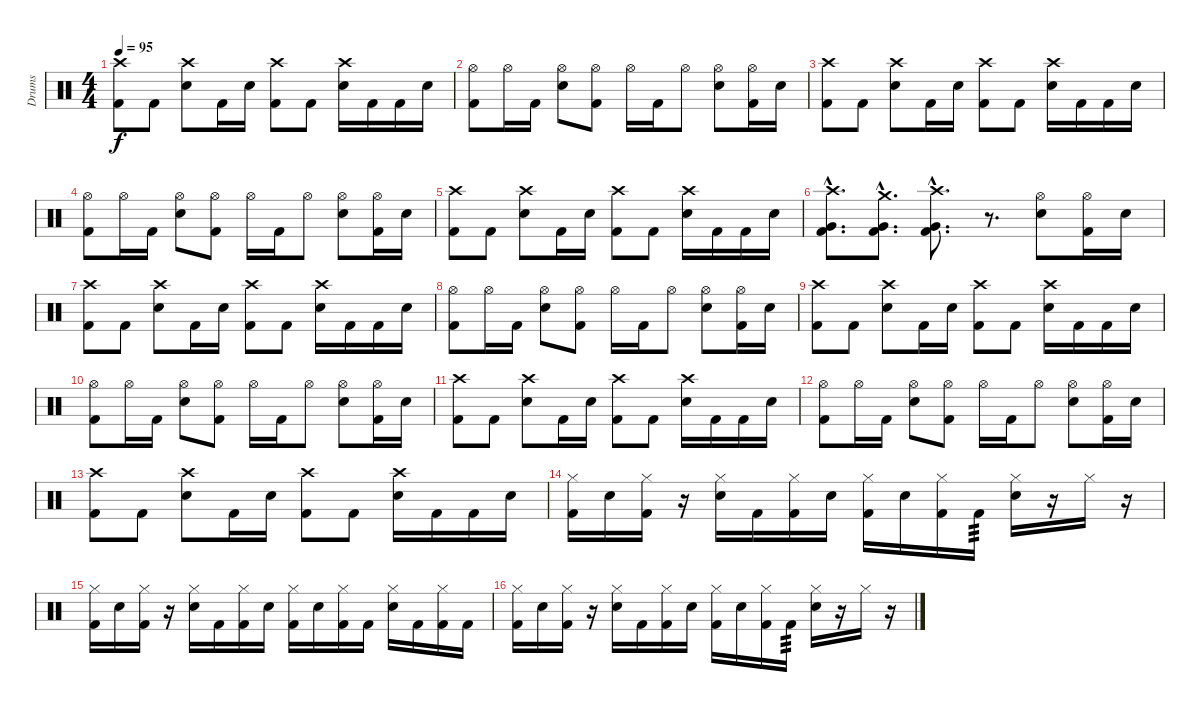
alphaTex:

\track ("Drums" "Drums") {instrument percussion}
\staff {score}
\articulation defaults
\ts (4 4)
\tempo 95
\clef neutral
\ks c
("Crash high (hit)" "Kick (hit) 2").8{dy f} "Kick (hit) 2".8 ("Crash high (hit)" "Snare (hit) 2").8 "Kick (hit) 2".16 "Snare (hit) 2".16 ("Crash high (hit)" "Kick (hit) 2").8 "Kick (hit) 2".8 ("Crash high (hit)" "Snare (hit) 2").16 "Kick (hit) 2".16 "Kick (hit) 2".16 "Snare (hit) 2".16 |
("Hi-Hat (open)" "Kick (hit) 2").8 "Hi-Hat (open)".16 "Kick (hit) 2".16 ("Hi-Hat (open)" "Snare (hit) 2").8 ("Hi-Hat (open)" "Kick (hit) 2").8 "Hi-Hat (open)".16 "Kick (hit) 2".16 "Hi-Hat (open)".8 ("Hi-Hat (open)" "Snare (hit) 2").8 ("Hi-Hat (open)" "Kick (hit) 2").16 "Snare (hit) 2".16 |
("Crash high (hit)" "Kick (hit) 2").8 "Kick (hit) 2".8 ("Crash high (hit)" "Snare (hit) 2").8 "Kick (hit) 2".16 "Snare (hit) 2".16 ("Crash high (hit)" "Kick (hit) 2").8 "Kick (hit) 2".8 ("Crash high (hit)" "Snare (hit) 2").16 "Kick (hit) 2".16 "Kick (hit) 2".16 "Snare (hit) 2".16 |
("Hi-Hat (open)" "Kick (hit) 2").8 "Hi-Hat (open)".16 "Kick (hit) 2".16 ("Hi-Hat (open)" "Snare (hit) 2").8 ("Hi-Hat (open)" "Kick (hit) 2").8 "Hi-Hat (open)".16 "Kick (hit) 2".16 "Hi-Hat (open)".8 ("Hi-Hat (open)" "Snare (hit) 2").8 ("Hi-Hat (open)" "Kick (hit) 2").16 "Snare (hit) 2".16 |
("Crash high (hit)" "Kick (hit) 2").8 "Kick (hit) 2".8 ("Crash high (hit)" "Snare (hit) 2").8 "Kick (hit) 2".16 "Snare (hit) 2".16 ("Crash high (hit)" "Kick (hit) 2").8 "Kick (hit) 2".8 ("Crash high (hit)" "Snare (hit) 2").16 "Kick (hit) 2".16 "Kick (hit) 2".16 "Snare (hit) 2".16 |
("Crash high (hit)"{hac} "Kick (hit) 2"{hac} "Very Low Tom (hit)"{hac}).8{d} ("Crash medium (hit)"{hac} "Kick (hit) 2"{hac} "Very Low Tom (hit)"{hac}).8{d} ("Crash high (hit)"{hac} "Kick (hit) 2"{hac} "Very Low Tom (hit)"{hac}).8{d} r.8{d} ("Hi-Hat (open)" "Snare (hit) 2").8 ("Hi-Hat (open)" "Kick (hit) 2").16 "Snare (hit) 2".16 |
("Crash high (hit)" "Kick (hit) 2").8 "Kick (hit) 2".8 ("Crash high (hit)" "Snare (hit) 2").8 "Kick (hit) 2".16 "Snare (hit) 2".16 ("Crash high (hit)" "Kick (hit) 2").8 "Kick (hit) 2".8 ("Crash high (hit)" "Snare (hit) 2").16 "Kick (hit) 2".16 "Kick (hit) 2".16 "Snare (hit) 2".16 |
("Hi-Hat (open)" "Kick (hit) 2").8 "Hi-Hat (open)".16 "Kick (hit) 2".16 ("Hi-Hat (open)" "Snare (hit) 2").8 ("Hi-Hat (open)" "Kick (hit) 2").8 "Hi-Hat (open)".16 "Kick (hit) 2".16 "Hi-Hat (open)".8 ("Hi-Hat (open)" "Snare (hit) 2").8 ("Hi-Hat (open)" "Kick (hit) 2").16 "Snare (hit) 2".16 |
("Crash high (hit)" "Kick (hit) 2").8 "Kick (hit) 2".8 ("Crash high (hit)" "Snare (hit) 2").8 "Kick (hit) 2".16 "Snare (hit) 2".16 ("Crash high (hit)" "Kick (hit) 2").8 "Kick (hit) 2".8 ("Crash high (hit)" "Snare (hit) 2").16 "Kick (hit) 2".16 "Kick (hit) 2".16 "Snare (hit) 2".16 |
("Hi-Hat (open)" "Kick (hit) 2").8 "Hi-Hat (open)".16 "Kick (hit) 2".16 ("Hi-Hat (open)" "Snare (hit) 2").8 ("Hi-Hat (open)" "Kick (hit) 2").8 "Hi-Hat (open)".16 "Kick (hit) 2".16 "Hi-Hat (open)".8 ("Hi-Hat (open)" "Snare (hit) 2").8 ("Hi-Hat (open)" "Kick (hit) 2").16 "Snare (hit) 2".16 |
("Crash high (hit)" "Kick (hit) 2").8 "Kick (hit) 2".8 ("Crash high (hit)" "Snare (hit) 2").8 "Kick (hit) 2".16 "Snare (hit) 2".16 ("Crash high (hit)" "Kick (hit) 2").8 "Kick (hit) 2".8 ("Crash high (hit)" "Snare (hit) 2").16 "Kick (hit) 2".16 "Kick (hit) 2".16 "Snare (hit) 2".16 |
("Hi-Hat (open)" "Kick (hit) 2").8 "Hi-Hat (open)".16 "Kick (hit) 2".16 ("Hi-Hat (open)" "Snare (hit) 2").8 ("Hi-Hat (open)" "Kick (hit) 2").8 "Hi-Hat (open)".16 "Kick (hit) 2".16 "Hi-Hat (open)".8 ("Hi-Hat (open)" "Snare (hit) 2").8 ("Hi-Hat (open)" "Kick (hit) 2").16 "Snare (hit) 2".16 |
("Crash high (hit)" "Kick (hit) 2").8 "Kick (hit) 2".8 ("Crash high (hit)" "Snare (hit) 2").8 "Kick (hit) 2".16 "Snare (hit) 2".16 ("Crash high (hit)" "Kick (hit) 2").8 "Kick (hit) 2".8 ("Crash high (hit)" "Snare (hit) 2").16 "Kick (hit) 2".16 "Kick (hit) 2".16 "Snare (hit) 2".16 |
("Hi-Hat (closed)" "Kick (hit) 2").16 "Snare (hit) 2".16 ("Hi-Hat (closed)" "Kick (hit) 2").16 r.16 ("Hi-Hat (closed)" "Snare (hit) 2").16 "Kick (hit) 2".16 ("Hi-Hat (closed)" "Kick (hit) 2").16 "Snare (hit) 2".16 ("Hi-Hat (closed)" "Kick (hit) 2").16 "Snare (hit) 2".16 ("Hi-Hat (closed)" "Kick (hit) 2").16 "Kick (hit) 2".16{tp 3} ("Hi-Hat (closed)" "Snare (hit) 2").16 r.16 "Hi-Hat (closed)".16 r.16 |
("Hi-Hat (closed)" "Kick (hit) 2").16 "Snare (hit) 2".16 ("Hi-Hat (closed)" "Kick (hit) 2").16 r.16 ("Hi-Hat (closed)" "Snare (hit) 2").16 "Kick (hit) 2".16 ("Hi-Hat (closed)" "Kick (hit) 2").16 "Snare (hit) 2".16 ("Hi-Hat (closed)" "Kick (hit) 2").16 "Snare (hit) 2".16 ("Hi-Hat (closed)" "Kick (hit) 2").16 "Kick (hit) 2".16 ("Hi-Hat (closed)" "Snare (hit) 2").16 "Kick (hit) 2".16 ("Hi-Hat (closed)" "Kick (hit) 2").16 "Kick (hit) 2".16 |
("Hi-Hat (closed)" "Kick (hit) 2").16 "Snare (hit) 2".16 ("Hi-Hat (closed)" "Kick (hit) 2").16 r.16 ("Hi-Hat (closed)" "Snare (hit) 2").16 "Kick (hit) 2".16 ("Hi-Hat (closed)" "Kick (hit) 2").16 "Snare (hit) 2".16 ("Hi-Hat (closed)" "Kick (hit) 2").16 "Snare (hit) 2".16 ("Hi-Hat (closed)" "Kick (hit) 2").16 "Kick (hit) 2".16{tp 3} ("Hi-Hat (closed)" "Snare (hit) 2").16 r.16 "Hi-Hat (closed)".16 r.16
